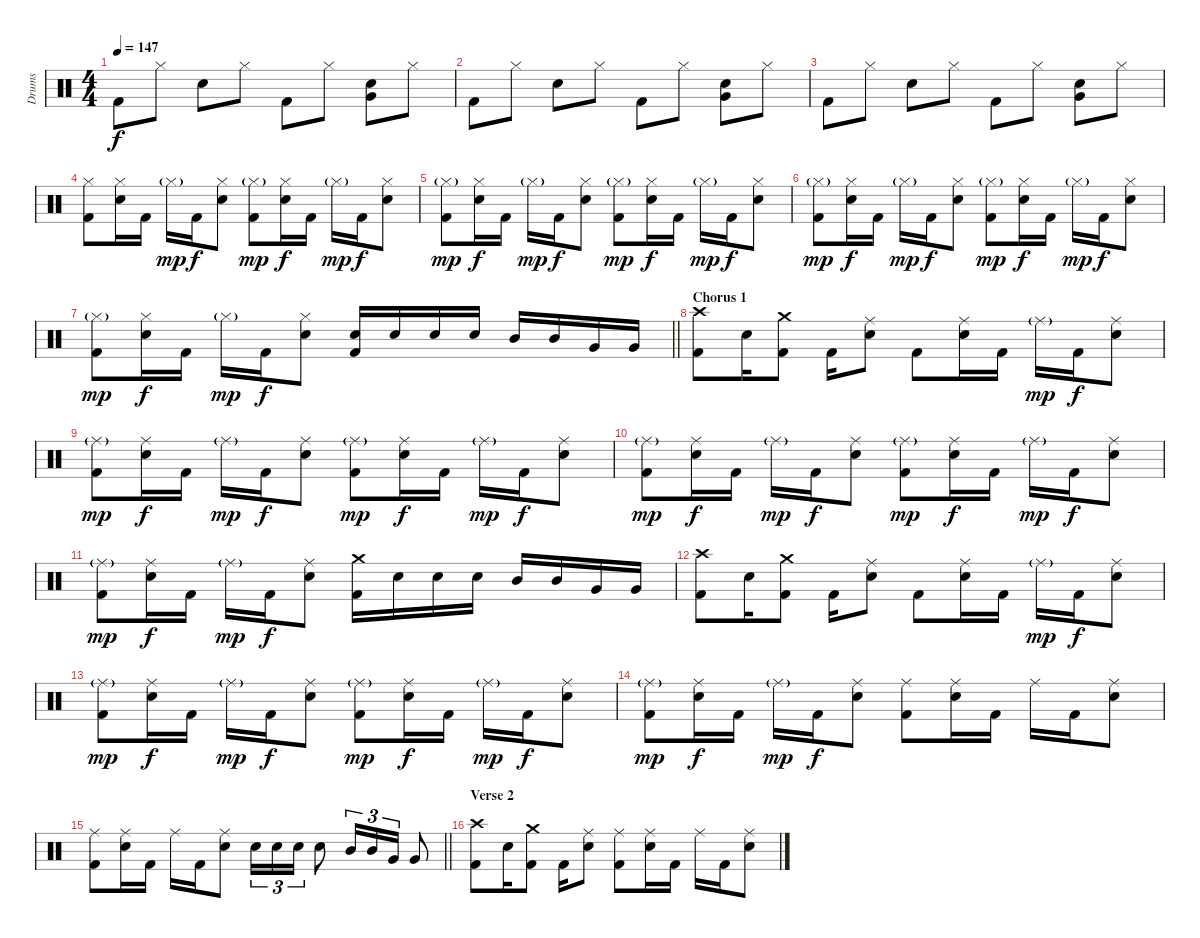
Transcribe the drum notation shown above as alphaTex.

\track ("Drums" "Drums") {instrument percussion}
\staff {score}
\articulation defaults
\ts (4 4)
\tempo 147
\clef neutral
\ks aminor "Kick (hit) 2".8{dy f} "Hi-Hat (closed)".8 "Electric Snare (hit)".8 "Hi-Hat (closed)".8 "Kick (hit) 2".8 "Hi-Hat (closed)".8
("Electric Snare (hit)" "Very Low Tom (hit)").8 "Hi-Hat (closed)".8 |
"Kick (hit) 2".8 "Hi-Hat (closed)".8 "Electric Snare (hit)".8 "Hi-Hat (closed)".8 "Kick (hit) 2".8 "Hi-Hat (closed)".8 ("Electric Snare (hit)" "Very Low Tom (hit)").8 "Hi-Hat (closed)".8 |
"Kick (hit) 2".8 "Hi-Hat (closed)".8 "Electric Snare (hit)".8 "Hi-Hat (closed)".8 "Kick (hit) 2".8 "Hi-Hat (closed)".8 ("Electric Snare (hit)" "Very Low Tom (hit)").8 "Hi-Hat (closed)".8 |
("Hi-Hat (closed)" "Kick (hit) 2").8 ("Hi-Hat (closed)" "Electric Snare (hit)").16 "Kick (hit) 2".16 "Hi-Hat (closed)"{g}.16{dy mp} "Kick (hit) 2".16{dy f} ("Hi-Hat (closed)" "Electric Snare (hit)").8 ("Hi-Hat (closed)"{g} "Kick (hit) 2").8{dy mp} ("Hi-Hat (closed)" "Electric Snare (hit)").16{dy f} "Kick (hit) 2".16 "Hi-Hat (closed)"{g}.16{dy mp} "Kick (hit) 2".16{dy f} ("Hi-Hat (closed)" "Electric Snare (hit)").8 |
("Hi-Hat (closed)"{g} "Kick (hit) 2").8{dy mp} ("Hi-Hat (closed)" "Electric Snare (hit)").16{dy f} "Kick (hit) 2".16 "Hi-Hat (closed)"{g}.16{dy mp} "Kick (hit) 2".16{dy f} ("Hi-Hat (closed)" "Electric Snare (hit)").8 ("Hi-Hat (closed)"{g} "Kick (hit) 2").8{dy mp} ("Hi-Hat (closed)" "Electric Snare (hit)").16{dy f} "Kick (hit) 2".16 "Hi-Hat (closed)"{g}.16{dy mp} "Kick (hit) 2".16{dy f} ("Hi-Hat (closed)" "Electric Snare (hit)").8 |
("Hi-Hat (closed)"{g} "Kick (hit) 2").8{dy mp} ("Hi-Hat (closed)" "Electric Snare (hit)").16{dy f} "Kick (hit) 2".16 "Hi-Hat (closed)"{g}.16{dy mp} "Kick (hit) 2".16{dy f} ("Hi-Hat (closed)" "Electric Snare (hit)").8 ("Hi-Hat (closed)"{g} "Kick (hit) 2").8{dy mp} ("Hi-Hat (closed)" "Electric Snare (hit)").16{dy f} "Kick (hit) 2".16 "Hi-Hat (closed)"{g}.16{dy mp} "Kick (hit) 2".16{dy f} ("Hi-Hat (closed)" "Electric Snare (hit)").8 |
\barLineRight lightlight
("Hi-Hat (closed)"{g} "Kick (hit) 2").8{dy mp} ("Hi-Hat (closed)" "Electric Snare (hit)").16{dy f} "Kick (hit) 2".16 "Hi-Hat (closed)"{g}.16{dy mp} "Kick (hit) 2".16{dy f} ("Hi-Hat (closed)" "Electric Snare (hit)").8 ("Electric Snare (hit)" "Kick (hit) 2").16 "Electric Snare (hit)".16 "Electric Snare (hit)".16 "Electric Snare (hit)".16 "Mid Tom (hit)".16 "Mid Tom (hit)".16 "Very Low Tom (hit)".16 "Very Low Tom (hit)".16 |
\section ("" "Chorus 1")
("Crash high (hit)" "Kick (hit) 2").8 "Electric Snare (hit)".16 ("Crash medium (hit)" "Kick (hit) 2").8 "Kick (hit) 2".16 ("Ride (middle)" "Electric Snare (hit)").8 "Kick (hit) 2".8 ("Ride (middle)" "Electric Snare (hit)").16 "Kick (hit) 2".16 "Ride (middle)"{g}.16{dy mp} "Kick (hit) 2".16{dy f} ("Ride (middle)" "Electric Snare (hit)").8 |
("Ride (middle)"{g} "Kick (hit) 2").8{dy mp} ("Ride (middle)" "Electric Snare (hit)").16{dy f} "Kick (hit) 2".16 "Ride (middle)"{g}.16{dy mp} "Kick (hit) 2".16{dy f} ("Ride (middle)" "Electric Snare (hit)").8 ("Ride (middle)"{g} "Kick (hit) 2").8{dy mp} ("Ride (middle)" "Electric Snare (hit)").16{dy f} "Kick (hit) 2".16 "Ride (middle)"{g}.16{dy mp} "Kick (hit) 2".16{dy f} ("Ride (middle)" "Electric Snare (hit)").8 |
("Ride (middle)"{g} "Kick (hit) 2").8{dy mp} ("Ride (middle)" "Electric Snare (hit)").16{dy f} "Kick (hit) 2".16 "Ride (middle)"{g}.16{dy mp} "Kick (hit) 2".16{dy f} ("Ride (middle)" "Electric Snare (hit)").8 ("Ride (middle)"{g} "Kick (hit) 2").8{dy mp} ("Ride (middle)" "Electric Snare (hit)").16{dy f} "Kick (hit) 2".16 "Ride (middle)"{g}.16{dy mp} "Kick (hit) 2".16{dy f} ("Ride (middle)" "Electric Snare (hit)").8 |
("Ride (middle)"{g} "Kick (hit) 2").8{dy mp} ("Ride (middle)" "Electric Snare (hit)").16{dy f} "Kick (hit) 2".16 "Ride (middle)"{g}.16{dy mp} "Kick (hit) 2".16{dy f} ("Ride (middle)" "Electric Snare (hit)").8 ("Crash medium (hit)" "Kick (hit) 2").16 "Electric Snare (hit)".16 "Electric Snare (hit)".16 "Electric Snare (hit)".16 "Mid Tom (hit)".16 "Mid Tom (hit)".16 "Very Low Tom (hit)".16 "Very Low Tom (hit)".16 |
("Crash high (hit)" "Kick (hit) 2").8 "Electric Snare (hit)".16 ("Crash medium (hit)" "Kick (hit) 2").8 "Kick (hit) 2".16 ("Ride (middle)" "Electric Snare (hit)").8 "Kick (hit) 2".8 ("Ride (middle)" "Electric Snare (hit)").16 "Kick (hit) 2".16 "Ride (middle)"{g}.16{dy mp} "Kick (hit) 2".16{dy f} ("Ride (middle)" "Electric Snare (hit)").8 |
("Ride (middle)"{g} "Kick (hit) 2").8{dy mp} ("Ride (middle)" "Electric Snare (hit)").16{dy f} "Kick (hit) 2".16 "Ride (middle)"{g}.16{dy mp} "Kick (hit) 2".16{dy f} ("Ride (middle)" "Electric Snare (hit)").8 ("Ride (middle)"{g} "Kick (hit) 2").8{dy mp} ("Ride (middle)" "Electric Snare (hit)").16{dy f} "Kick (hit) 2".16 "Ride (middle)"{g}.16{dy mp} "Kick (hit) 2".16{dy f} ("Ride (middle)" "Electric Snare (hit)").8 |
("Ride (middle)"{g} "Kick (hit) 2").8{dy mp} ("Ride (middle)" "Electric Snare (hit)").16{dy f} "Kick (hit) 2".16 "Ride (middle)"{g}.16{dy mp} "Kick (hit) 2".16{dy f} ("Ride (middle)" "Electric Snare (hit)").8 ("Ride (middle)" "Kick (hit) 2").8 ("Ride (middle)" "Electric Snare (hit)").16 "Kick (hit) 2".16 "Ride (middle)".16 "Kick (hit) 2".16 ("Ride (middle)" "Electric Snare (hit)").8 |
\barLineRight lightlight
("Ride (middle)" "Kick (hit) 2").8 ("Ride (middle)" "Electric Snare (hit)").16 "Kick (hit) 2".16 "Ride (middle)".16 "Kick (hit) 2".16 ("Ride (middle)" "Electric Snare (hit)").8 "Electric Snare (hit)".16{tu (3 2)} "Electric Snare (hit)".16{tu (3 2)} "Electric Snare (hit)".16{tu (3 2)} "Electric Snare (hit)".8 "Mid Tom (hit)".16{tu (3 2)} "Mid Tom (hit)".16{tu (3 2)} "Very Low Tom (hit)".16{tu (3 2)} "Very Low Tom (hit)".8 |
\section ("" "Verse 2")
("Crash high (hit)" "Kick (hit) 2").8 "Electric Snare (hit)".16 ("Crash medium (hit)" "Kick (hit) 2").8 "Kick (hit) 2".16 ("Ride (middle)" "Electric Snare (hit)").8 ("Ride (middle)" "Kick (hit) 2").8 ("Ride (middle)" "Electric Snare (hit)").16 "Kick (hit) 2".16 "Ride (middle)".16 "Kick (hit) 2".16 ("Ride (middle)" "Electric Snare (hit)").8
